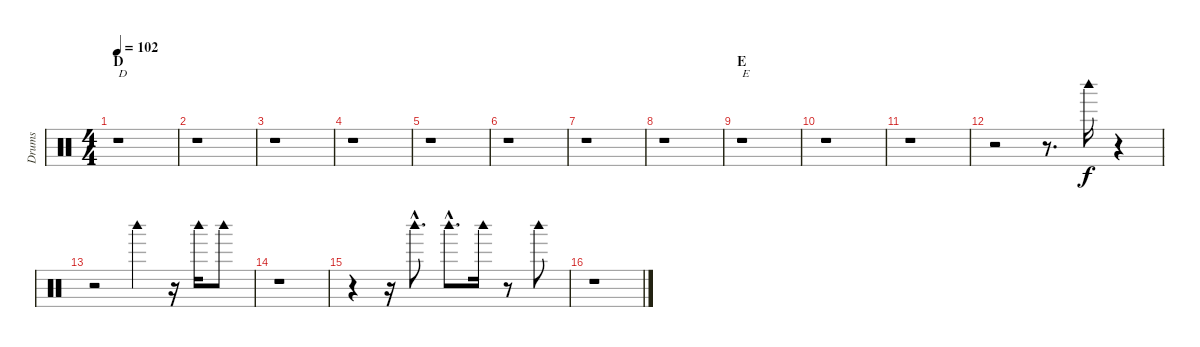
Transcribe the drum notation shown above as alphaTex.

\track ("Drums" "Drums") {instrument percussion}
\staff {score}
\articulation defaults
\ts (4 4)
\section ("" "D")
\tempo 102
\clef neutral
\ks c
r.1{txt "D" dy f} |
r.1 |
r.1 |
r.1 |
r.1 |
r.1 |
r.1 |
r.1 |
\section ("" "E")
r.1{txt "E"} |
r.1 |
r.1 |
r.2 r.8{d} "Woodblock high (hit)".16 r.4 |
r.2 "Woodblock high (hit)".4 r.16 "Woodblock high (hit)".16 "Woodblock high (hit)".8 |
r.1 |
r.4 r.16 "Woodblock high (hit)"{hac}.8{d} "Woodblock high (hit)"{hac}.8{d} "Woodblock high (hit)".16 r.8 "Woodblock high (hit)".8 |
r.1
